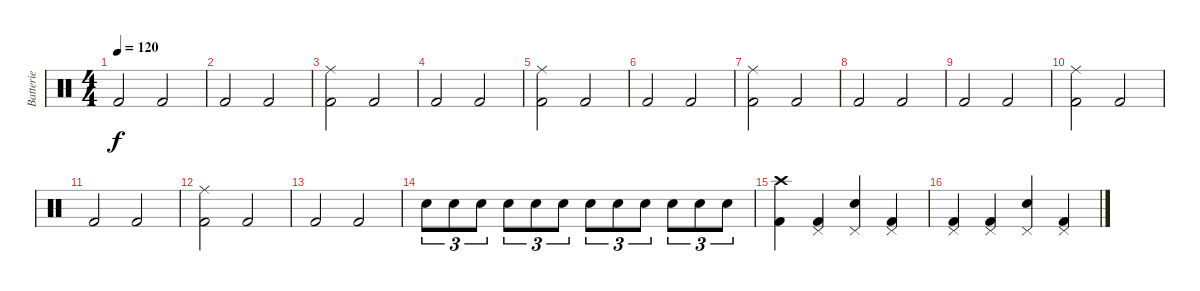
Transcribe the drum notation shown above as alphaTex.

\track ("Batterie" "Batterie") {instrument percussion}
\staff {score}
\articulation defaults
\ts (4 4)
\tempo 120
\clef neutral
\ks c "Kick (hit) 2".2{dy f} "Kick (hit) 2".2
|
"Kick (hit) 2".2 "Kick (hit) 2".2 |
("Ride (middle)" "Kick (hit) 2").2 "Kick (hit) 2".2 |
"Kick (hit) 2".2 "Kick (hit) 2".2 |
("Ride (middle)" "Kick (hit) 2").2 "Kick (hit) 2".2 |
"Kick (hit) 2".2 "Kick (hit) 2".2 |
("Ride (middle)" "Kick (hit) 2").2 "Kick (hit) 2".2 |
"Kick (hit) 2".2 "Kick (hit) 2".2 |
"Kick (hit) 2".2 "Kick (hit) 2".2 |
("Ride (middle)" "Kick (hit) 2").2 "Kick (hit) 2".2 |
"Kick (hit) 2".2 "Kick (hit) 2".2 |
("Ride (middle)" "Kick (hit) 2").2 "Kick (hit) 2".2 |
"Kick (hit) 2".2 "Kick (hit) 2".2 |
"Electric Snare (hit)".8{tu (3 2)} "Electric Snare (hit)".8{tu (3 2)} "Electric Snare (hit)".8{tu (3 2)} "Electric Snare (hit)".8{tu (3 2)} "Electric Snare (hit)".8{tu (3 2)} "Electric Snare (hit)".8{tu (3 2)} "Electric Snare (hit)".8{tu (3 2)} "Electric Snare (hit)".8{tu (3 2)} "Electric Snare (hit)".8{tu (3 2)} "Electric Snare (hit)".8{tu (3 2)} "Electric Snare (hit)".8{tu (3 2)} "Electric Snare (hit)".8{tu (3 2)} |
("Crash high (hit)" "Kick (hit) 2").4 ("Pedal Hi-Hat (hit)" "Kick (hit) 2").4 ("Pedal Hi-Hat (hit)" "Electric Snare (hit)").4 ("Pedal Hi-Hat (hit)" "Kick (hit) 2").4 |
("Pedal Hi-Hat (hit)" "Kick (hit) 2").4 ("Pedal Hi-Hat (hit)" "Kick (hit) 2").4 ("Pedal Hi-Hat (hit)" "Electric Snare (hit)").4 ("Pedal Hi-Hat (hit)" "Kick (hit) 2").4
